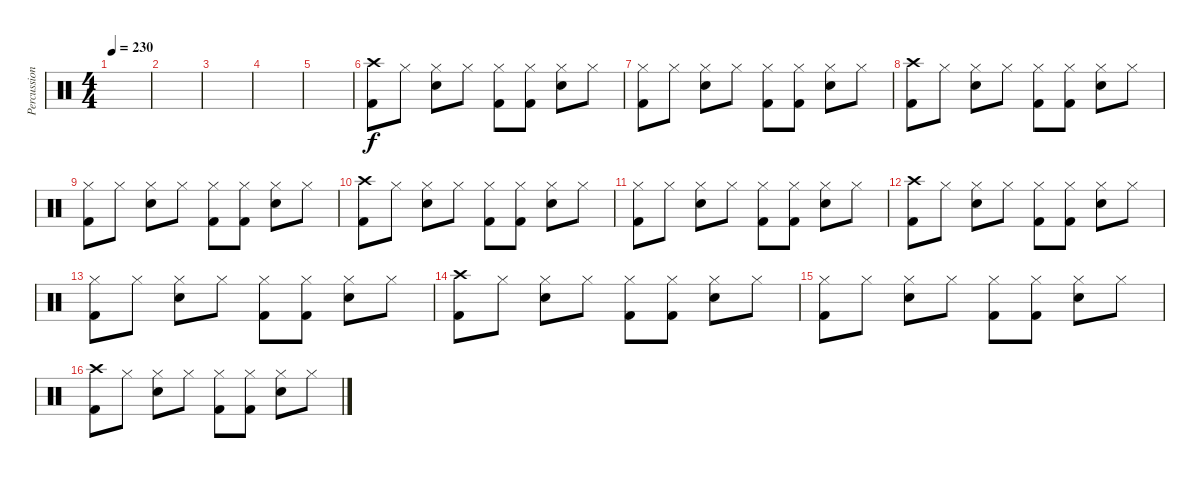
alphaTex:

\track ("Percussions" "Percussion") {instrument percussion}
\staff {score}
\articulation defaults
\ts (4 4)
\tempo 230
\clef neutral
\ks c
|
|
|
|
|
("Crash high (hit)" "Kick (hit) 2").8 "Hi-Hat (closed)".8 ("Hi-Hat (closed)" "Electric Snare (hit)").8 "Hi-Hat (closed)".8 ("Hi-Hat (closed)" "Kick (hit) 2").8 ("Hi-Hat (closed)" "Kick (hit) 2").8 ("Hi-Hat (closed)" "Electric Snare (hit)").8 "Hi-Hat (closed)".8 |
("Hi-Hat (closed)" "Kick (hit) 2").8 "Hi-Hat (closed)".8 ("Hi-Hat (closed)" "Electric Snare (hit)").8 "Hi-Hat (closed)".8 ("Hi-Hat (closed)" "Kick (hit) 2").8 ("Hi-Hat (closed)" "Kick (hit) 2").8 ("Hi-Hat (closed)" "Electric Snare (hit)").8 "Hi-Hat (closed)".8 |
("Crash high (hit)" "Kick (hit) 2").8 "Hi-Hat (closed)".8 ("Hi-Hat (closed)" "Electric Snare (hit)").8 "Hi-Hat (closed)".8 ("Hi-Hat (closed)" "Kick (hit) 2").8 ("Hi-Hat (closed)" "Kick (hit) 2").8 ("Hi-Hat (closed)" "Electric Snare (hit)").8 "Hi-Hat (closed)".8 |
("Hi-Hat (closed)" "Kick (hit) 2").8 "Hi-Hat (closed)".8 ("Hi-Hat (closed)" "Electric Snare (hit)").8 "Hi-Hat (closed)".8 ("Hi-Hat (closed)" "Kick (hit) 2").8 ("Hi-Hat (closed)" "Kick (hit) 2").8 ("Hi-Hat (closed)" "Electric Snare (hit)").8 "Hi-Hat (closed)".8 |
("Crash high (hit)" "Kick (hit) 2").8 "Hi-Hat (closed)".8 ("Hi-Hat (closed)" "Electric Snare (hit)").8 "Hi-Hat (closed)".8 ("Hi-Hat (closed)" "Kick (hit) 2").8 ("Hi-Hat (closed)" "Kick (hit) 2").8 ("Hi-Hat (closed)" "Electric Snare (hit)").8 "Hi-Hat (closed)".8 |
("Hi-Hat (closed)" "Kick (hit) 2").8 "Hi-Hat (closed)".8 ("Hi-Hat (closed)" "Electric Snare (hit)").8 "Hi-Hat (closed)".8 ("Hi-Hat (closed)" "Kick (hit) 2").8 ("Hi-Hat (closed)" "Kick (hit) 2").8 ("Hi-Hat (closed)" "Electric Snare (hit)").8 "Hi-Hat (closed)".8 |
("Crash high (hit)" "Kick (hit) 2").8 "Hi-Hat (closed)".8 ("Hi-Hat (closed)" "Electric Snare (hit)").8 "Hi-Hat (closed)".8 ("Hi-Hat (closed)" "Kick (hit) 2").8 ("Hi-Hat (closed)" "Kick (hit) 2").8 ("Hi-Hat (closed)" "Electric Snare (hit)").8 "Hi-Hat (closed)".8 |
("Hi-Hat (closed)" "Kick (hit) 2").8 "Hi-Hat (closed)".8 ("Hi-Hat (closed)" "Electric Snare (hit)").8 "Hi-Hat (closed)".8 ("Hi-Hat (closed)" "Kick (hit) 2").8 ("Hi-Hat (closed)" "Kick (hit) 2").8 ("Hi-Hat (closed)" "Electric Snare (hit)").8 "Hi-Hat (closed)".8 |
("Crash high (hit)" "Kick (hit) 2").8 "Hi-Hat (closed)".8 ("Hi-Hat (closed)" "Electric Snare (hit)").8 "Hi-Hat (closed)".8 ("Hi-Hat (closed)" "Kick (hit) 2").8 ("Hi-Hat (closed)" "Kick (hit) 2").8 ("Hi-Hat (closed)" "Electric Snare (hit)").8 "Hi-Hat (closed)".8 |
("Hi-Hat (closed)" "Kick (hit) 2").8 "Hi-Hat (closed)".8 ("Hi-Hat (closed)" "Electric Snare (hit)").8 "Hi-Hat (closed)".8 ("Hi-Hat (closed)" "Kick (hit) 2").8 ("Hi-Hat (closed)" "Kick (hit) 2").8 ("Hi-Hat (closed)" "Electric Snare (hit)").8 "Hi-Hat (closed)".8 |
("Crash high (hit)" "Kick (hit) 2").8 "Hi-Hat (closed)".8 ("Hi-Hat (closed)" "Electric Snare (hit)").8 "Hi-Hat (closed)".8 ("Hi-Hat (closed)" "Kick (hit) 2").8 ("Hi-Hat (closed)" "Kick (hit) 2").8 ("Hi-Hat (closed)" "Electric Snare (hit)").8 "Hi-Hat (closed)".8
